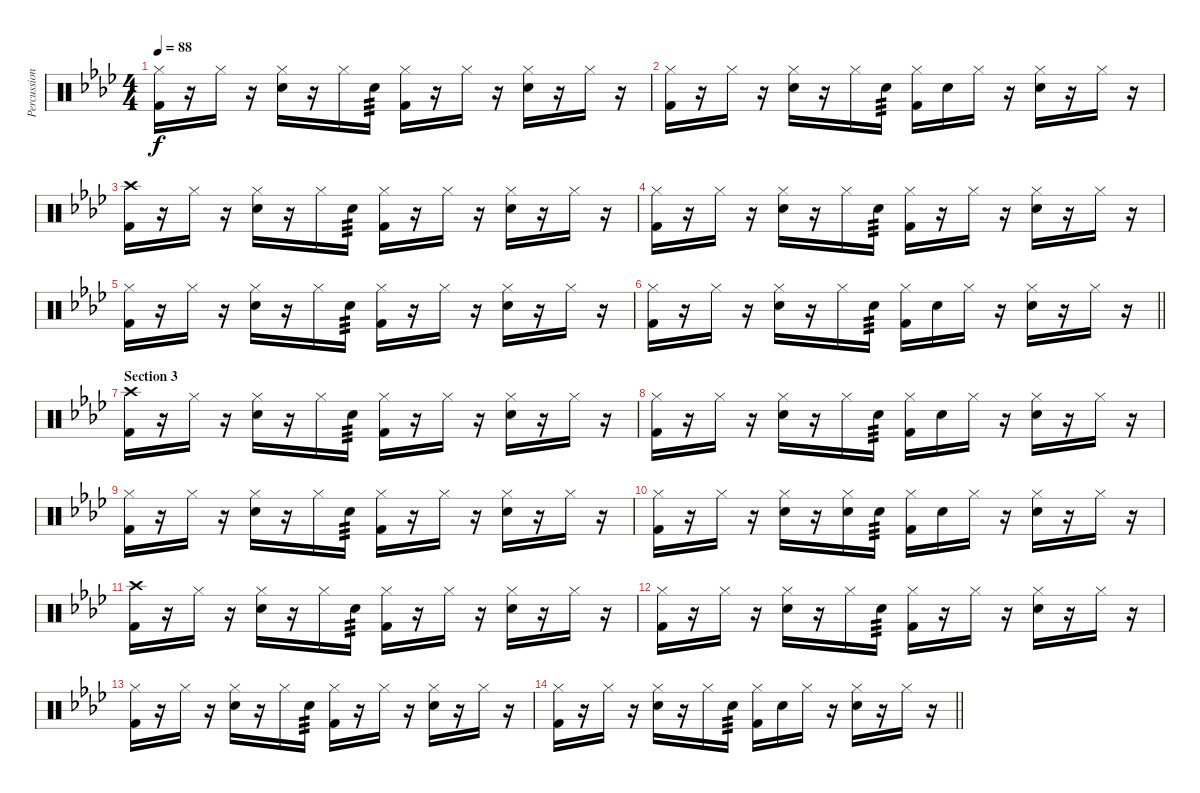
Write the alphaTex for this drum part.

\track ("Percussion" "Percussion") {instrument percussion}
\staff {score}
\articulation defaults
\ts (4 4)
\tempo 88
\clef neutral
\ks fminor
("Hi-Hat (closed)" "Kick (hit) 2").16{dy f} r.16 "Hi-Hat (closed)".16 r.16 ("Hi-Hat (closed)" "Snare (hit) 2").16 r.16 "Hi-Hat (closed)".16 "Snare (hit) 2".16{tp 3} ("Hi-Hat (closed)" "Kick (hit) 2").16 r.16 "Hi-Hat (closed)".16 r.16 ("Hi-Hat (closed)" "Snare (hit) 2").16 r.16 "Hi-Hat (closed)".16 r.16 |
("Hi-Hat (closed)" "Kick (hit) 2").16 r.16 "Hi-Hat (closed)".16 r.16 ("Hi-Hat (closed)" "Snare (hit) 2").16 r.16 "Hi-Hat (closed)".16 "Snare (hit) 2".16{tp 3} ("Hi-Hat (closed)" "Kick (hit) 2").16 "Snare (hit) 2".16 "Hi-Hat (closed)".16 r.16 ("Hi-Hat (closed)" "Snare (hit) 2").16 r.16 "Hi-Hat (closed)".16 r.16 |
("Crash high (hit)" "Kick (hit) 2").16 r.16 "Hi-Hat (closed)".16 r.16 ("Hi-Hat (closed)" "Snare (hit) 2").16 r.16 "Hi-Hat (closed)".16 "Snare (hit) 2".16{tp 3} ("Hi-Hat (closed)" "Kick (hit) 2").16 r.16 "Hi-Hat (closed)".16 r.16 ("Hi-Hat (closed)" "Snare (hit) 2").16 r.16 "Hi-Hat (closed)".16 r.16 |
("Hi-Hat (closed)" "Kick (hit) 2").16 r.16 "Hi-Hat (closed)".16 r.16 ("Hi-Hat (closed)" "Snare (hit) 2").16 r.16 "Hi-Hat (closed)".16 "Snare (hit) 2".16{tp 3} ("Hi-Hat (closed)" "Kick (hit) 2").16 r.16 "Hi-Hat (closed)".16 r.16 ("Hi-Hat (closed)" "Snare (hit) 2").16 r.16 "Hi-Hat (closed)".16 r.16 |
("Hi-Hat (closed)" "Kick (hit) 2").16 r.16 "Hi-Hat (closed)".16 r.16 ("Hi-Hat (closed)" "Snare (hit) 2").16 r.16 "Hi-Hat (closed)".16 "Snare (hit) 2".16{tp 3} ("Hi-Hat (closed)" "Kick (hit) 2").16 r.16 "Hi-Hat (closed)".16 r.16 ("Hi-Hat (closed)" "Snare (hit) 2").16 r.16 "Hi-Hat (closed)".16 r.16 |
\barLineRight lightlight
("Hi-Hat (closed)" "Kick (hit) 2").16 r.16 "Hi-Hat (closed)".16 r.16 ("Hi-Hat (closed)" "Snare (hit) 2").16 r.16 "Hi-Hat (closed)".16 "Snare (hit) 2".16{tp 3} ("Hi-Hat (closed)" "Kick (hit) 2").16 "Snare (hit) 2".16 "Hi-Hat (closed)".16 r.16 ("Hi-Hat (closed)" "Snare (hit) 2").16 r.16 "Hi-Hat (closed)".16 r.16 |
\section ("" "Section 3")
("Crash high (hit)" "Kick (hit) 2").16 r.16 "Hi-Hat (closed)".16 r.16 ("Hi-Hat (closed)" "Snare (hit) 2").16 r.16 "Hi-Hat (closed)".16 "Snare (hit) 2".16{tp 3} ("Hi-Hat (closed)" "Kick (hit) 2").16 r.16 "Hi-Hat (closed)".16 r.16 ("Hi-Hat (closed)" "Snare (hit) 2").16 r.16 "Hi-Hat (closed)".16 r.16 |
("Hi-Hat (closed)" "Kick (hit) 2").16 r.16 "Hi-Hat (closed)".16 r.16 ("Hi-Hat (closed)" "Snare (hit) 2").16 r.16 "Hi-Hat (closed)".16 "Snare (hit) 2".16{tp 3} ("Hi-Hat (closed)" "Kick (hit) 2").16 "Snare (hit) 2".16 "Hi-Hat (closed)".16 r.16 ("Hi-Hat (closed)" "Snare (hit) 2").16 r.16 "Hi-Hat (closed)".16 r.16 |
("Hi-Hat (closed)" "Kick (hit) 2").16 r.16 "Hi-Hat (closed)".16 r.16 ("Hi-Hat (closed)" "Snare (hit) 2").16 r.16 "Hi-Hat (closed)".16 "Snare (hit) 2".16{tp 3} ("Hi-Hat (closed)" "Kick (hit) 2").16 r.16 "Hi-Hat (closed)".16 r.16 ("Hi-Hat (closed)" "Snare (hit) 2").16 r.16 "Hi-Hat (closed)".16 r.16 |
("Hi-Hat (closed)" "Kick (hit) 2").16 r.16 "Hi-Hat (closed)".16 r.16 ("Hi-Hat (closed)" "Snare (hit) 2").16 r.16 ("Hi-Hat (closed)" "Snare (hit) 2").16 "Snare (hit) 2".16{tp 3} ("Hi-Hat (closed)" "Kick (hit) 2").16 "Snare (hit) 2".16 "Hi-Hat (closed)".16 r.16 ("Hi-Hat (closed)" "Snare (hit) 2").16 r.16 "Hi-Hat (closed)".16 r.16 |
("Crash high (hit)" "Kick (hit) 2").16 r.16 "Hi-Hat (closed)".16 r.16 ("Hi-Hat (closed)" "Snare (hit) 2").16 r.16 "Hi-Hat (closed)".16 "Snare (hit) 2".16{tp 3} ("Hi-Hat (closed)" "Kick (hit) 2").16 r.16 "Hi-Hat (closed)".16 r.16 ("Hi-Hat (closed)" "Snare (hit) 2").16 r.16 "Hi-Hat (closed)".16 r.16 |
("Hi-Hat (closed)" "Kick (hit) 2").16 r.16 "Hi-Hat (closed)".16 r.16 ("Hi-Hat (closed)" "Snare (hit) 2").16 r.16 "Hi-Hat (closed)".16 "Snare (hit) 2".16{tp 3} ("Hi-Hat (closed)" "Kick (hit) 2").16 r.16 "Hi-Hat (closed)".16 r.16 ("Hi-Hat (closed)" "Snare (hit) 2").16 r.16 "Hi-Hat (closed)".16 r.16 |
("Hi-Hat (closed)" "Kick (hit) 2").16 r.16 "Hi-Hat (closed)".16 r.16 ("Hi-Hat (closed)" "Snare (hit) 2").16 r.16 "Hi-Hat (closed)".16 "Snare (hit) 2".16{tp 3} ("Hi-Hat (closed)" "Kick (hit) 2").16 r.16 "Hi-Hat (closed)".16 r.16 ("Hi-Hat (closed)" "Snare (hit) 2").16 r.16 "Hi-Hat (closed)".16 r.16 |
\barLineRight lightlight
("Hi-Hat (closed)" "Kick (hit) 2").16 r.16 "Hi-Hat (closed)".16 r.16 ("Hi-Hat (closed)" "Snare (hit) 2").16 r.16 "Hi-Hat (closed)".16 "Snare (hit) 2".16{tp 3} ("Hi-Hat (closed)" "Kick (hit) 2").16 "Snare (hit) 2".16 "Hi-Hat (closed)".16 r.16 ("Hi-Hat (closed)" "Snare (hit) 2").16 r.16 "Hi-Hat (closed)".16 r.16
